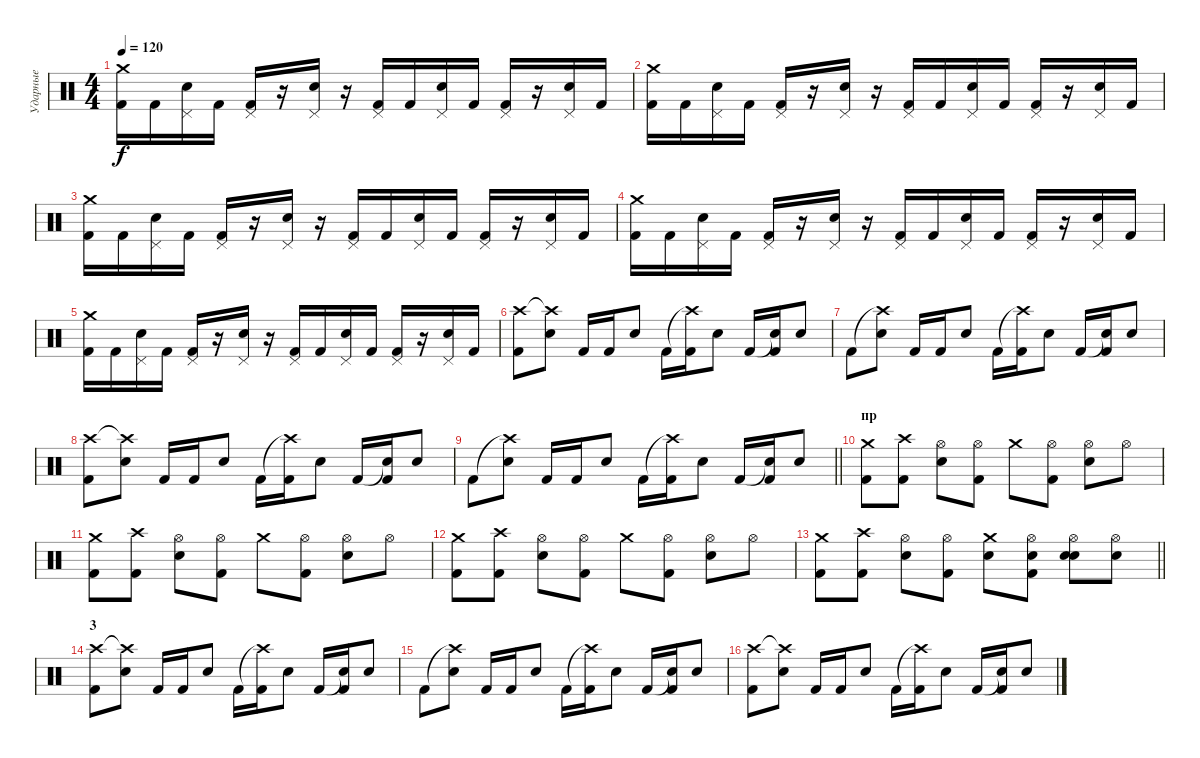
\track ("Ударные" "Ударные") {instrument percussion}
\staff {score}
\articulation defaults
\ts (4 4)
\tempo 120
\clef neutral
\ks c
("Crash medium (hit)" "Kick (hit) 2").16{dy f} "Kick (hit) 2".16 ("Pedal Hi-Hat (hit)" "Electric Snare (hit)").16 "Kick (hit) 2".16 ("Pedal Hi-Hat (hit)" "Kick (hit) 2").16 r.16 ("Pedal Hi-Hat (hit)" "Electric Snare (hit)").16 r.16 ("Pedal Hi-Hat (hit)" "Kick (hit) 2").16 "Kick (hit) 2".16 ("Pedal Hi-Hat (hit)" "Electric Snare (hit)").16 "Kick (hit) 2".16 ("Pedal Hi-Hat (hit)" "Kick (hit) 2").16 r.16 ("Pedal Hi-Hat (hit)" "Electric Snare (hit)").16 "Kick (hit) 2".16 |
("Crash medium (hit)" "Kick (hit) 2").16 "Kick (hit) 2".16 ("Pedal Hi-Hat (hit)" "Electric Snare (hit)").16 "Kick (hit) 2".16 ("Pedal Hi-Hat (hit)" "Kick (hit) 2").16 r.16 ("Pedal Hi-Hat (hit)" "Electric Snare (hit)").16 r.16 ("Pedal Hi-Hat (hit)" "Kick (hit) 2").16 "Kick (hit) 2".16 ("Pedal Hi-Hat (hit)" "Electric Snare (hit)").16 "Kick (hit) 2".16 ("Pedal Hi-Hat (hit)" "Kick (hit) 2").16 r.16 ("Pedal Hi-Hat (hit)" "Electric Snare (hit)").16 "Kick (hit) 2".16 |
("Crash medium (hit)" "Kick (hit) 2").16 "Kick (hit) 2".16 ("Pedal Hi-Hat (hit)" "Electric Snare (hit)").16 "Kick (hit) 2".16 ("Pedal Hi-Hat (hit)" "Kick (hit) 2").16 r.16 ("Pedal Hi-Hat (hit)" "Electric Snare (hit)").16 r.16 ("Pedal Hi-Hat (hit)" "Kick (hit) 2").16 "Kick (hit) 2".16 ("Pedal Hi-Hat (hit)" "Electric Snare (hit)").16 "Kick (hit) 2".16 ("Pedal Hi-Hat (hit)" "Kick (hit) 2").16 r.16 ("Pedal Hi-Hat (hit)" "Electric Snare (hit)").16 "Kick (hit) 2".16 |
("Crash medium (hit)" "Kick (hit) 2").16 "Kick (hit) 2".16 ("Pedal Hi-Hat (hit)" "Electric Snare (hit)").16 "Kick (hit) 2".16 ("Pedal Hi-Hat (hit)" "Kick (hit) 2").16 r.16 ("Pedal Hi-Hat (hit)" "Electric Snare (hit)").16 r.16 ("Pedal Hi-Hat (hit)" "Kick (hit) 2").16 "Kick (hit) 2".16 ("Pedal Hi-Hat (hit)" "Electric Snare (hit)").16 "Kick (hit) 2".16 ("Pedal Hi-Hat (hit)" "Kick (hit) 2").16 r.16 ("Pedal Hi-Hat (hit)" "Electric Snare (hit)").16 "Kick (hit) 2".16 |
("Crash medium (hit)" "Kick (hit) 2").16 "Kick (hit) 2".16 ("Pedal Hi-Hat (hit)" "Electric Snare (hit)").16 "Kick (hit) 2".16 ("Pedal Hi-Hat (hit)" "Kick (hit) 2").16 r.16 ("Pedal Hi-Hat (hit)" "Electric Snare (hit)").16 r.16 ("Pedal Hi-Hat (hit)" "Kick (hit) 2").16 "Kick (hit) 2".16 ("Pedal Hi-Hat (hit)" "Electric Snare (hit)").16 "Kick (hit) 2".16 ("Pedal Hi-Hat (hit)" "Kick (hit) 2").16 r.16 ("Pedal Hi-Hat (hit)" "Electric Snare (hit)").16 "Kick (hit) 2".16 |
("Crash high (hit)" "Kick (hit) 2").8 ("Crash high (hit)"{t} "Electric Snare (hit)").8 "Kick (hit) 2".16 "Kick (hit) 2".16 "Electric Snare (hit)".8 "Kick (hit) 2".16 ("Crash high (hit)"{t} "Kick (hit) 2").16 "Electric Snare (hit)".8 "Kick (hit) 2".16 ("Snare (hit)"{t} "Kick (hit) 2").16 "Electric Snare (hit)".8 |
"Kick (hit) 2".8 ("Crash high (hit)"{t} "Electric Snare (hit)").8 "Kick (hit) 2".16 "Kick (hit) 2".16 "Electric Snare (hit)".8 "Kick (hit) 2".16 ("Crash high (hit)"{t} "Kick (hit) 2").16 "Electric Snare (hit)".8 "Kick (hit) 2".16 ("Snare (hit)"{t} "Kick (hit) 2").16 "Electric Snare (hit)".8 |
("Crash high (hit)" "Kick (hit) 2").8 ("Crash high (hit)"{t} "Electric Snare (hit)").8 "Kick (hit) 2".16 "Kick (hit) 2".16 "Electric Snare (hit)".8 "Kick (hit) 2".16 ("Crash high (hit)"{t} "Kick (hit) 2").16 "Electric Snare (hit)".8 "Kick (hit) 2".16 ("Snare (hit)"{t} "Kick (hit) 2").16 "Electric Snare (hit)".8 |
\barLineRight lightlight "Kick (hit) 2".8
("Crash high (hit)"{t} "Electric Snare (hit)").8 "Kick (hit) 2".16 "Kick (hit) 2".16 "Electric Snare (hit)".8 "Kick (hit) 2".16 ("Crash high (hit)"{t} "Kick (hit) 2").16 "Electric Snare (hit)".8 "Kick (hit) 2".16 ("Snare (hit)"{t} "Kick (hit) 2").16 "Electric Snare (hit)".8 |
\section ("" "пр")
("Crash medium (hit)" "Kick (hit) 2").8 ("Crash high (hit)" "Kick (hit) 2").8 ("Hi-Hat (open)" "Electric Snare (hit)").8 ("Hi-Hat (open)" "Kick (hit) 2").8 "Crash medium (hit)".8 ("Hi-Hat (open)" "Kick (hit) 2").8 ("Hi-Hat (open)" "Electric Snare (hit)").8 "Hi-Hat (open)".8 |
("Crash medium (hit)" "Kick (hit) 2").8 ("Crash high (hit)" "Kick (hit) 2").8 ("Hi-Hat (open)" "Electric Snare (hit)").8 ("Hi-Hat (open)" "Kick (hit) 2").8 "Crash medium (hit)".8 ("Hi-Hat (open)" "Kick (hit) 2").8 ("Hi-Hat (open)" "Electric Snare (hit)").8 "Hi-Hat (open)".8 |
("Crash medium (hit)" "Kick (hit) 2").8 ("Crash high (hit)" "Kick (hit) 2").8 ("Hi-Hat (open)" "Electric Snare (hit)").8 ("Hi-Hat (open)" "Kick (hit) 2").8 "Crash medium (hit)".8 ("Hi-Hat (open)" "Kick (hit) 2").8 ("Hi-Hat (open)" "Electric Snare (hit)").8 "Hi-Hat (open)".8 |
\barLineRight lightlight
("Crash medium (hit)" "Kick (hit) 2").8 ("Crash high (hit)" "Kick (hit) 2").8 ("Hi-Hat (open)" "Electric Snare (hit)").8 ("Hi-Hat (open)" "Kick (hit) 2").8 ("Crash medium (hit)" "Electric Snare (hit)").8 ("Hi-Hat (open)" "Electric Snare (hit)" "Kick (hit) 2").8 ("Hi-Hat (open)" "Electric Snare (hit)" "Electric Snare (hit)").8 ("Hi-Hat (open)" "Electric Snare (hit)").8 |
\section ("" "3")
("Crash high (hit)" "Kick (hit) 2").8 ("Crash high (hit)"{t} "Electric Snare (hit)").8 "Kick (hit) 2".16 "Kick (hit) 2".16 "Electric Snare (hit)".8 "Kick (hit) 2".16 ("Crash high (hit)"{t} "Kick (hit) 2").16 "Electric Snare (hit)".8 "Kick (hit) 2".16 ("Snare (hit)"{t} "Kick (hit) 2").16 "Electric Snare (hit)".8 |
"Kick (hit) 2".8 ("Crash high (hit)"{t} "Electric Snare (hit)").8 "Kick (hit) 2".16 "Kick (hit) 2".16 "Electric Snare (hit)".8 "Kick (hit) 2".16 ("Crash high (hit)"{t} "Kick (hit) 2").16 "Electric Snare (hit)".8 "Kick (hit) 2".16 ("Snare (hit)"{t} "Kick (hit) 2").16 "Electric Snare (hit)".8 |
("Crash high (hit)" "Kick (hit) 2").8 ("Crash high (hit)"{t} "Electric Snare (hit)").8 "Kick (hit) 2".16 "Kick (hit) 2".16 "Electric Snare (hit)".8 "Kick (hit) 2".16 ("Crash high (hit)"{t} "Kick (hit) 2").16 "Electric Snare (hit)".8 "Kick (hit) 2".16 ("Snare (hit)"{t} "Kick (hit) 2").16 "Electric Snare (hit)".8
